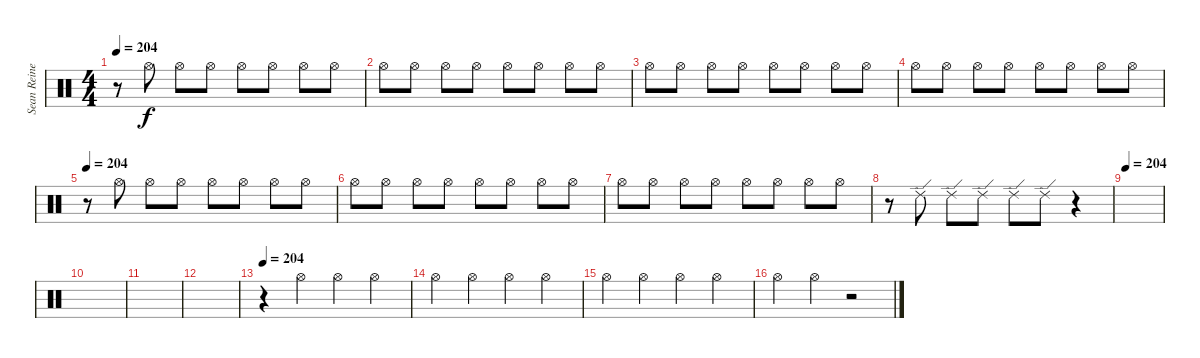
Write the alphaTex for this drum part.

\track ("Sean Reinert" "Sean Reine") {instrument percussion}
\staff {score}
\articulation defaults
\ts (4 4)
\tempo 204
\clef neutral
\ks c
r.8{dy f} "Hi-Hat (open)".8 "Hi-Hat (open)".8 "Hi-Hat (open)".8 "Hi-Hat (open)".8 "Hi-Hat (open)".8 "Hi-Hat (open)".8 "Hi-Hat (open)".8 |
"Hi-Hat (open)".8 "Hi-Hat (open)".8 "Hi-Hat (open)".8 "Hi-Hat (open)".8 "Hi-Hat (open)".8 "Hi-Hat (open)".8 "Hi-Hat (open)".8 "Hi-Hat (open)".8 |
"Hi-Hat (open)".8 "Hi-Hat (open)".8 "Hi-Hat (open)".8 "Hi-Hat (open)".8 "Hi-Hat (open)".8 "Hi-Hat (open)".8 "Hi-Hat (open)".8 "Hi-Hat (open)".8 |
"Hi-Hat (open)".8 "Hi-Hat (open)".8 "Hi-Hat (open)".8 "Hi-Hat (open)".8 "Hi-Hat (open)".8 "Hi-Hat (open)".8 "Hi-Hat (open)".8 "Hi-Hat (open)".8 |
\tempo 204
r.8 "Hi-Hat (open)".8 "Hi-Hat (open)".8 "Hi-Hat (open)".8 "Hi-Hat (open)".8 "Hi-Hat (open)".8 "Hi-Hat (open)".8 "Hi-Hat (open)".8 |
"Hi-Hat (open)".8 "Hi-Hat (open)".8 "Hi-Hat (open)".8 "Hi-Hat (open)".8 "Hi-Hat (open)".8 "Hi-Hat (open)".8 "Hi-Hat (open)".8 "Hi-Hat (open)".8 |
"Hi-Hat (open)".8 "Hi-Hat (open)".8 "Hi-Hat (open)".8 "Hi-Hat (open)".8 "Hi-Hat (open)".8 "Hi-Hat (open)".8 "Hi-Hat (open)".8 "Hi-Hat (open)".8 |
r.8 "Ride (edge) 2".8 "Ride (edge) 2".8 "Ride (edge) 2".8 "Ride (edge) 2".8 "Ride (edge) 2".8 r.4 |
\tempo 204
|
|
|
|
\tempo 204
r.4 "Hi-Hat (open)".4 "Hi-Hat (open)".4 "Hi-Hat (open)".4 |
"Hi-Hat (open)".4 "Hi-Hat (open)".4 "Hi-Hat (open)".4 "Hi-Hat (open)".4 |
"Hi-Hat (open)".4 "Hi-Hat (open)".4 "Hi-Hat (open)".4 "Hi-Hat (open)".4 |
"Hi-Hat (open)".4 "Hi-Hat (open)".4 r.2
